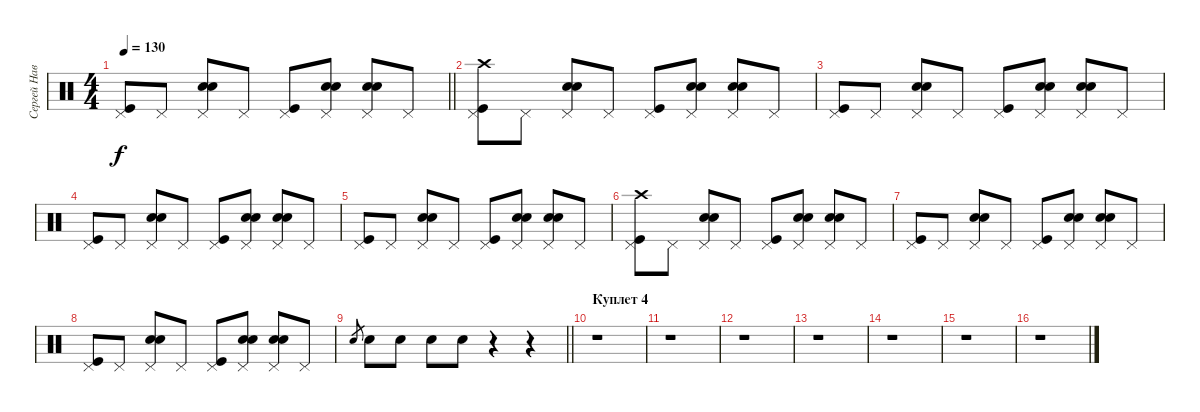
\track ("Сергей Наветный" "Сергей Нав") {instrument percussion}
\staff {score}
\articulation defaults
\ts (4 4)
\tempo 130
\clef neutral
\barLineRight lightlight
\ks c
("Kick (hit)" "Pedal Hi-Hat (hit)").8{dy f} "Pedal Hi-Hat (hit)".8 ("Hand Clap (hit)" "Snare (hit) 2" "Pedal Hi-Hat (hit)").8 "Pedal Hi-Hat (hit)".8 ("Kick (hit)" "Pedal Hi-Hat (hit)").8 ("Hand Clap (hit)" "Snare (hit) 2" "Pedal Hi-Hat (hit)").8 ("Hand Clap (hit)" "Snare (hit) 2" "Pedal Hi-Hat (hit)").8 "Pedal Hi-Hat (hit)".8 |
("Crash high (hit)" "Kick (hit)" "Pedal Hi-Hat (hit)").8 "Pedal Hi-Hat (hit)".8 ("Hand Clap (hit)" "Snare (hit) 2" "Pedal Hi-Hat (hit)").8 "Pedal Hi-Hat (hit)".8 ("Kick (hit)" "Pedal Hi-Hat (hit)").8 ("Hand Clap (hit)" "Snare (hit) 2" "Pedal Hi-Hat (hit)").8 ("Hand Clap (hit)" "Snare (hit) 2" "Pedal Hi-Hat (hit)").8 "Pedal Hi-Hat (hit)".8 |
("Kick (hit)" "Pedal Hi-Hat (hit)").8 "Pedal Hi-Hat (hit)".8 ("Hand Clap (hit)" "Snare (hit) 2" "Pedal Hi-Hat (hit)").8 "Pedal Hi-Hat (hit)".8 ("Kick (hit)" "Pedal Hi-Hat (hit)").8 ("Hand Clap (hit)" "Snare (hit) 2" "Pedal Hi-Hat (hit)").8 ("Hand Clap (hit)" "Snare (hit) 2" "Pedal Hi-Hat (hit)").8 "Pedal Hi-Hat (hit)".8 |
("Kick (hit)" "Pedal Hi-Hat (hit)").8 "Pedal Hi-Hat (hit)".8 ("Hand Clap (hit)" "Snare (hit) 2" "Pedal Hi-Hat (hit)").8 "Pedal Hi-Hat (hit)".8 ("Kick (hit)" "Pedal Hi-Hat (hit)").8 ("Hand Clap (hit)" "Snare (hit) 2" "Pedal Hi-Hat (hit)").8 ("Hand Clap (hit)" "Snare (hit) 2" "Pedal Hi-Hat (hit)").8 "Pedal Hi-Hat (hit)".8 |
("Kick (hit)" "Pedal Hi-Hat (hit)").8 "Pedal Hi-Hat (hit)".8 ("Hand Clap (hit)" "Snare (hit) 2" "Pedal Hi-Hat (hit)").8 "Pedal Hi-Hat (hit)".8 ("Kick (hit)" "Pedal Hi-Hat (hit)").8 ("Hand Clap (hit)" "Snare (hit) 2" "Pedal Hi-Hat (hit)").8 ("Hand Clap (hit)" "Snare (hit) 2" "Pedal Hi-Hat (hit)").8 "Pedal Hi-Hat (hit)".8 |
("Crash high (hit)" "Kick (hit)" "Pedal Hi-Hat (hit)").8 "Pedal Hi-Hat (hit)".8 ("Hand Clap (hit)" "Snare (hit) 2" "Pedal Hi-Hat (hit)").8 "Pedal Hi-Hat (hit)".8 ("Kick (hit)" "Pedal Hi-Hat (hit)").8 ("Hand Clap (hit)" "Snare (hit) 2" "Pedal Hi-Hat (hit)").8 ("Hand Clap (hit)" "Snare (hit) 2" "Pedal Hi-Hat (hit)").8 "Pedal Hi-Hat (hit)".8 |
("Kick (hit)" "Pedal Hi-Hat (hit)").8 "Pedal Hi-Hat (hit)".8 ("Hand Clap (hit)" "Snare (hit) 2" "Pedal Hi-Hat (hit)").8 "Pedal Hi-Hat (hit)".8 ("Kick (hit)" "Pedal Hi-Hat (hit)").8 ("Hand Clap (hit)" "Snare (hit) 2" "Pedal Hi-Hat (hit)").8 ("Hand Clap (hit)" "Snare (hit) 2" "Pedal Hi-Hat (hit)").8 "Pedal Hi-Hat (hit)".8 |
("Kick (hit)" "Pedal Hi-Hat (hit)").8 "Pedal Hi-Hat (hit)".8 ("Hand Clap (hit)" "Snare (hit) 2" "Pedal Hi-Hat (hit)").8 "Pedal Hi-Hat (hit)".8 ("Kick (hit)" "Pedal Hi-Hat (hit)").8 ("Hand Clap (hit)" "Snare (hit) 2" "Pedal Hi-Hat (hit)").8 ("Hand Clap (hit)" "Snare (hit) 2" "Pedal Hi-Hat (hit)").8 "Pedal Hi-Hat (hit)".8 |
\barLineRight lightlight "Snare (hit) 2".8{gr} "Snare (hit) 2".8 "Snare (hit) 2".8 "Snare (hit) 2".8 "Snare (hit) 2".8
r.4 r.4 |
\section ("" "Куплет 4")
r.1 |
r.1 |
r.1 |
r.1 |
r.1 |
r.1 |
r.1
